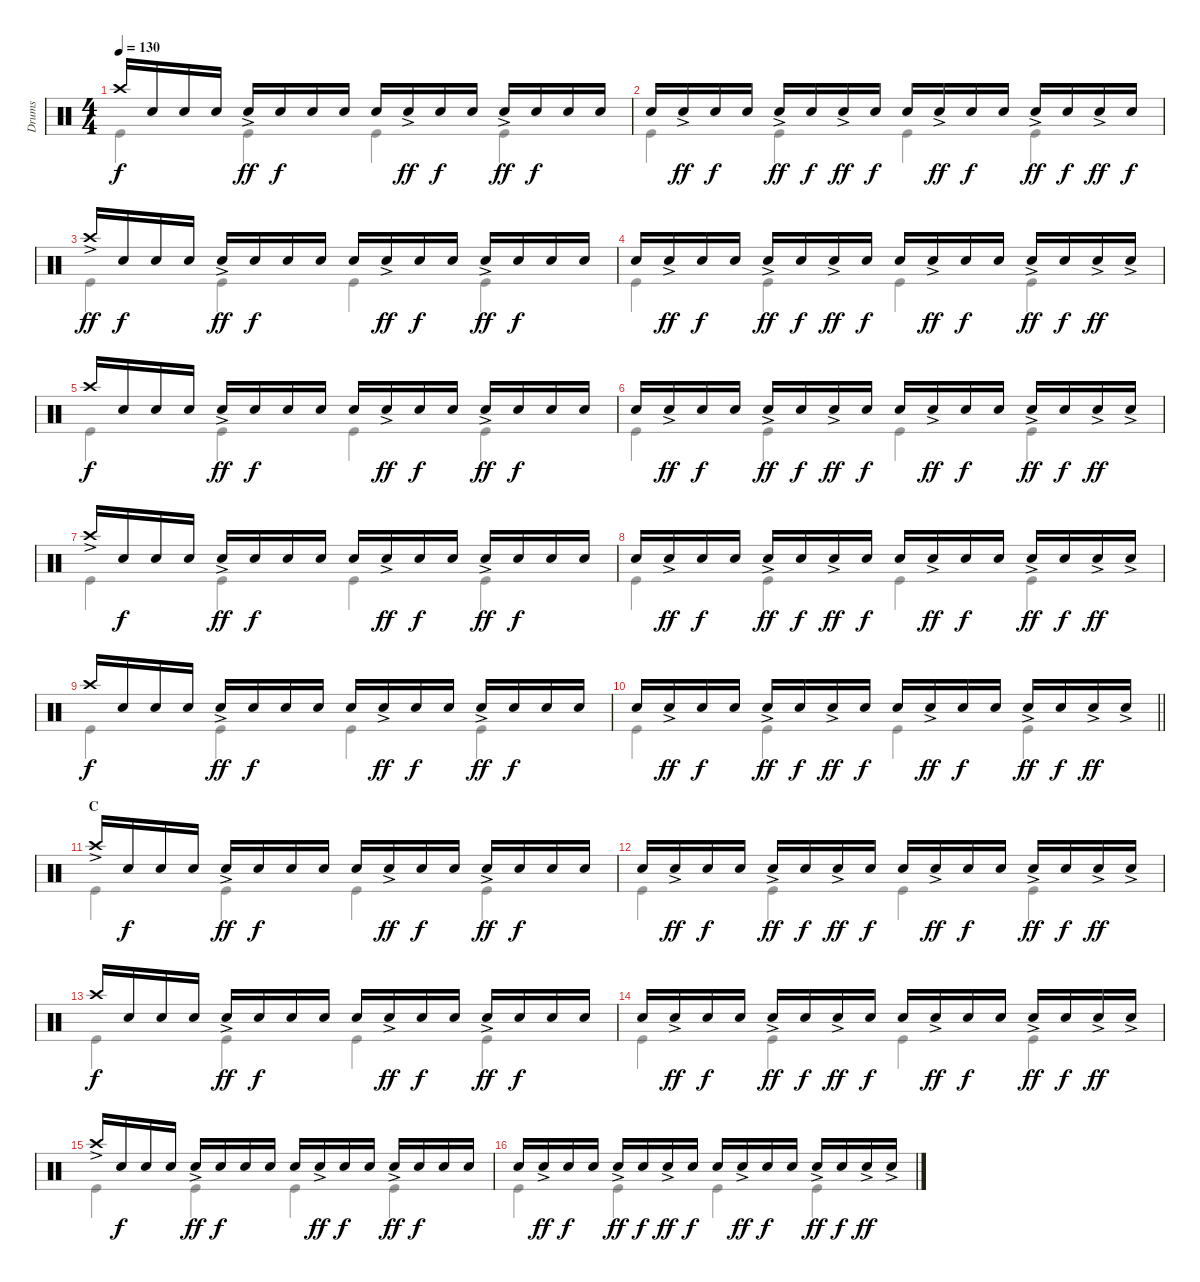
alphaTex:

\track ("Drums" "Drums") {instrument percussion}
\staff {score}
\articulation defaults
\voice
\ts (4 4)
\tempo 130
\clef neutral
\ks c "Crash high (hit)".16{dy f} "Snare (hit) 2".16 "Snare (hit) 2".16 "Snare (hit) 2".16 "Snare (hit) 2"{ac}.16{dy ff} "Snare (hit) 2".16{dy f} "Snare (hit) 2".16 "Snare (hit) 2".16 "Snare (hit) 2".16 "Snare (hit) 2"{ac}.16{dy ff} "Snare (hit) 2".16{dy f} "Snare (hit) 2".16 "Snare (hit) 2"{ac}.16{dy ff} "Snare (hit) 2".16{dy f} "Snare (hit) 2".16 "Snare (hit) 2".16
|
"Snare (hit) 2".16 "Snare (hit) 2"{ac}.16{dy ff} "Snare (hit) 2".16{dy f} "Snare (hit) 2".16 "Snare (hit) 2"{ac}.16{dy ff} "Snare (hit) 2".16{dy f} "Snare (hit) 2"{ac}.16{dy ff} "Snare (hit) 2".16{dy f} "Snare (hit) 2".16 "Snare (hit) 2"{ac}.16{dy ff} "Snare (hit) 2".16{dy f} "Snare (hit) 2".16 "Snare (hit) 2"{ac}.16{dy ff} "Snare (hit) 2".16{dy f} "Snare (hit) 2"{ac}.16{dy ff} "Snare (hit) 2".16{dy f} |
"Crash high (hit)"{ac}.16{dy ff} "Snare (hit) 2".16{dy f} "Snare (hit) 2".16 "Snare (hit) 2".16 "Snare (hit) 2"{ac}.16{dy ff} "Snare (hit) 2".16{dy f} "Snare (hit) 2".16 "Snare (hit) 2".16 "Snare (hit) 2".16 "Snare (hit) 2"{ac}.16{dy ff} "Snare (hit) 2".16{dy f} "Snare (hit) 2".16 "Snare (hit) 2"{ac}.16{dy ff} "Snare (hit) 2".16{dy f} "Snare (hit) 2".16 "Snare (hit) 2".16 |
"Snare (hit) 2".16 "Snare (hit) 2"{ac}.16{dy ff} "Snare (hit) 2".16{dy f} "Snare (hit) 2".16 "Snare (hit) 2"{ac}.16{dy ff} "Snare (hit) 2".16{dy f} "Snare (hit) 2"{ac}.16{dy ff} "Snare (hit) 2".16{dy f} "Snare (hit) 2".16 "Snare (hit) 2"{ac}.16{dy ff} "Snare (hit) 2".16{dy f} "Snare (hit) 2".16 "Snare (hit) 2"{ac}.16{dy ff} "Snare (hit) 2".16{dy f} "Snare (hit) 2"{ac}.16{dy ff} "Snare (hit) 2"{ac}.16 |
"Crash high (hit)".16{dy f} "Snare (hit) 2".16 "Snare (hit) 2".16 "Snare (hit) 2".16 "Snare (hit) 2"{ac}.16{dy ff} "Snare (hit) 2".16{dy f} "Snare (hit) 2".16 "Snare (hit) 2".16 "Snare (hit) 2".16 "Snare (hit) 2"{ac}.16{dy ff} "Snare (hit) 2".16{dy f} "Snare (hit) 2".16 "Snare (hit) 2"{ac}.16{dy ff} "Snare (hit) 2".16{dy f} "Snare (hit) 2".16 "Snare (hit) 2".16 |
"Snare (hit) 2".16 "Snare (hit) 2"{ac}.16{dy ff} "Snare (hit) 2".16{dy f} "Snare (hit) 2".16 "Snare (hit) 2"{ac}.16{dy ff} "Snare (hit) 2".16{dy f} "Snare (hit) 2"{ac}.16{dy ff} "Snare (hit) 2".16{dy f} "Snare (hit) 2".16 "Snare (hit) 2"{ac}.16{dy ff} "Snare (hit) 2".16{dy f} "Snare (hit) 2".16 "Snare (hit) 2"{ac}.16{dy ff} "Snare (hit) 2".16{dy f} "Snare (hit) 2"{ac}.16{dy ff} "Snare (hit) 2"{ac}.16 |
"Crash high (hit)"{ac}.16 "Snare (hit) 2".16{dy f} "Snare (hit) 2".16 "Snare (hit) 2".16 "Snare (hit) 2"{ac}.16{dy ff} "Snare (hit) 2".16{dy f} "Snare (hit) 2".16 "Snare (hit) 2".16 "Snare (hit) 2".16 "Snare (hit) 2"{ac}.16{dy ff} "Snare (hit) 2".16{dy f} "Snare (hit) 2".16 "Snare (hit) 2"{ac}.16{dy ff} "Snare (hit) 2".16{dy f} "Snare (hit) 2".16 "Snare (hit) 2".16 |
"Snare (hit) 2".16 "Snare (hit) 2"{ac}.16{dy ff} "Snare (hit) 2".16{dy f} "Snare (hit) 2".16 "Snare (hit) 2"{ac}.16{dy ff} "Snare (hit) 2".16{dy f} "Snare (hit) 2"{ac}.16{dy ff} "Snare (hit) 2".16{dy f} "Snare (hit) 2".16 "Snare (hit) 2"{ac}.16{dy ff} "Snare (hit) 2".16{dy f} "Snare (hit) 2".16 "Snare (hit) 2"{ac}.16{dy ff} "Snare (hit) 2".16{dy f} "Snare (hit) 2"{ac}.16{dy ff} "Snare (hit) 2"{ac}.16 |
"Crash high (hit)".16{dy f} "Snare (hit) 2".16 "Snare (hit) 2".16 "Snare (hit) 2".16 "Snare (hit) 2"{ac}.16{dy ff} "Snare (hit) 2".16{dy f} "Snare (hit) 2".16 "Snare (hit) 2".16 "Snare (hit) 2".16 "Snare (hit) 2"{ac}.16{dy ff} "Snare (hit) 2".16{dy f} "Snare (hit) 2".16 "Snare (hit) 2"{ac}.16{dy ff} "Snare (hit) 2".16{dy f} "Snare (hit) 2".16 "Snare (hit) 2".16 |
\barLineRight lightlight "Snare (hit) 2".16 "Snare (hit) 2"{ac}.16{dy ff} "Snare (hit) 2".16{dy f} "Snare (hit) 2".16 "Snare (hit) 2"{ac}.16{dy ff} "Snare (hit) 2".16{dy f} "Snare (hit) 2"{ac}.16{dy ff} "Snare (hit) 2".16{dy f} "Snare (hit) 2".16 "Snare (hit) 2"{ac}.16{dy ff} "Snare (hit) 2".16{dy f} "Snare (hit) 2".16 "Snare (hit) 2"{ac}.16{dy ff} "Snare (hit) 2".16{dy f} "Snare (hit) 2"{ac}.16{dy ff} "Snare (hit) 2"{ac}.16
|
\section ("" "C")
"Crash high (hit)"{ac}.16 "Snare (hit) 2".16{dy f} "Snare (hit) 2".16 "Snare (hit) 2".16 "Snare (hit) 2"{ac}.16{dy ff} "Snare (hit) 2".16{dy f} "Snare (hit) 2".16 "Snare (hit) 2".16 "Snare (hit) 2".16 "Snare (hit) 2"{ac}.16{dy ff} "Snare (hit) 2".16{dy f} "Snare (hit) 2".16 "Snare (hit) 2"{ac}.16{dy ff} "Snare (hit) 2".16{dy f} "Snare (hit) 2".16 "Snare (hit) 2".16 |
"Snare (hit) 2".16 "Snare (hit) 2"{ac}.16{dy ff} "Snare (hit) 2".16{dy f} "Snare (hit) 2".16 "Snare (hit) 2"{ac}.16{dy ff} "Snare (hit) 2".16{dy f} "Snare (hit) 2"{ac}.16{dy ff} "Snare (hit) 2".16{dy f} "Snare (hit) 2".16 "Snare (hit) 2"{ac}.16{dy ff} "Snare (hit) 2".16{dy f} "Snare (hit) 2".16 "Snare (hit) 2"{ac}.16{dy ff} "Snare (hit) 2".16{dy f} "Snare (hit) 2"{ac}.16{dy ff} "Snare (hit) 2"{ac}.16 |
"Crash high (hit)".16{dy f} "Snare (hit) 2".16 "Snare (hit) 2".16 "Snare (hit) 2".16 "Snare (hit) 2"{ac}.16{dy ff} "Snare (hit) 2".16{dy f} "Snare (hit) 2".16 "Snare (hit) 2".16 "Snare (hit) 2".16 "Snare (hit) 2"{ac}.16{dy ff} "Snare (hit) 2".16{dy f} "Snare (hit) 2".16 "Snare (hit) 2"{ac}.16{dy ff} "Snare (hit) 2".16{dy f} "Snare (hit) 2".16 "Snare (hit) 2".16 |
"Snare (hit) 2".16 "Snare (hit) 2"{ac}.16{dy ff} "Snare (hit) 2".16{dy f} "Snare (hit) 2".16 "Snare (hit) 2"{ac}.16{dy ff} "Snare (hit) 2".16{dy f} "Snare (hit) 2"{ac}.16{dy ff} "Snare (hit) 2".16{dy f} "Snare (hit) 2".16 "Snare (hit) 2"{ac}.16{dy ff} "Snare (hit) 2".16{dy f} "Snare (hit) 2".16 "Snare (hit) 2"{ac}.16{dy ff} "Snare (hit) 2".16{dy f} "Snare (hit) 2"{ac}.16{dy ff} "Snare (hit) 2"{ac}.16 |
"Crash high (hit)"{ac}.16 "Snare (hit) 2".16{dy f} "Snare (hit) 2".16 "Snare (hit) 2".16 "Snare (hit) 2"{ac}.16{dy ff} "Snare (hit) 2".16{dy f} "Snare (hit) 2".16 "Snare (hit) 2".16 "Snare (hit) 2".16 "Snare (hit) 2"{ac}.16{dy ff} "Snare (hit) 2".16{dy f} "Snare (hit) 2".16 "Snare (hit) 2"{ac}.16{dy ff} "Snare (hit) 2".16{dy f} "Snare (hit) 2".16 "Snare (hit) 2".16 |
"Snare (hit) 2".16 "Snare (hit) 2"{ac}.16{dy ff} "Snare (hit) 2".16{dy f} "Snare (hit) 2".16 "Snare (hit) 2"{ac}.16{dy ff} "Snare (hit) 2".16{dy f} "Snare (hit) 2"{ac}.16{dy ff} "Snare (hit) 2".16{dy f} "Snare (hit) 2".16 "Snare (hit) 2"{ac}.16{dy ff} "Snare (hit) 2".16{dy f} "Snare (hit) 2".16 "Snare (hit) 2"{ac}.16{dy ff} "Snare (hit) 2".16{dy f} "Snare (hit) 2"{ac}.16{dy ff} "Snare (hit) 2"{ac}.16
\voice
\clef neutral
\ottava regular
\simile none
\ks c "Kick (hit)".4{dy f} "Kick (hit)".4 "Kick (hit)".4 "Kick (hit)".4
|
"Kick (hit)".4 "Kick (hit)".4 "Kick (hit)".4 "Kick (hit)".4 |
"Kick (hit)".4 "Kick (hit)".4 "Kick (hit)".4 "Kick (hit)".4 |
"Kick (hit)".4 "Kick (hit)".4 "Kick (hit)".4 "Kick (hit)".4 |
"Kick (hit)".4 "Kick (hit)".4 "Kick (hit)".4 "Kick (hit)".4 |
"Kick (hit)".4 "Kick (hit)".4 "Kick (hit)".4 "Kick (hit)".4 |
"Kick (hit)".4 "Kick (hit)".4 "Kick (hit)".4 "Kick (hit)".4 |
"Kick (hit)".4 "Kick (hit)".4 "Kick (hit)".4 "Kick (hit)".4 |
"Kick (hit)".4 "Kick (hit)".4 "Kick (hit)".4 "Kick (hit)".4 |
\barLineRight lightlight "Kick (hit)".4 "Kick (hit)".4 "Kick (hit)".4 "Kick (hit)".4
|
"Kick (hit)".4 "Kick (hit)".4 "Kick (hit)".4 "Kick (hit)".4 |
"Kick (hit)".4 "Kick (hit)".4 "Kick (hit)".4 "Kick (hit)".4 |
"Kick (hit)".4 "Kick (hit)".4 "Kick (hit)".4 "Kick (hit)".4 |
"Kick (hit)".4 "Kick (hit)".4 "Kick (hit)".4 "Kick (hit)".4 |
"Kick (hit)".4 "Kick (hit)".4 "Kick (hit)".4 "Kick (hit)".4 |
"Kick (hit)".4 "Kick (hit)".4 "Kick (hit)".4 "Kick (hit)".4
